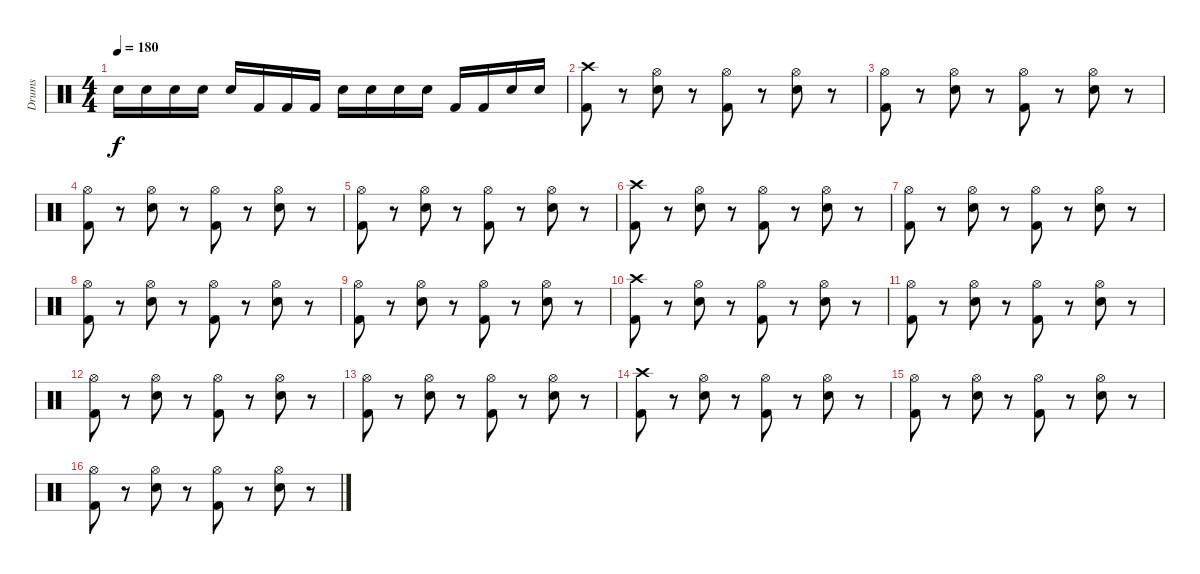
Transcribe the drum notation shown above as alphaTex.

\track ("Drums" "Drums") {instrument percussion}
\staff {score}
\articulation defaults
\ts (4 4)
\tempo 180
\clef neutral
\ks c "Snare (hit) 2".16{dy f} "Snare (hit) 2".16 "Snare (hit) 2".16 "Snare (hit) 2".16 "Snare (hit) 2".16 "Kick (hit) 2".16 "Kick (hit) 2".16 "Kick (hit) 2".16 "Snare (hit) 2".16 "Snare (hit) 2".16 "Snare (hit) 2".16 "Snare (hit) 2".16 "Kick (hit) 2".16 "Kick (hit) 2".16 "Snare (hit) 2".16 "Snare (hit) 2".16
|
("Crash high (hit)" "Kick (hit) 2").8 r.8 ("Hi-Hat (open)" "Snare (hit) 2").8 r.8 ("Hi-Hat (open)" "Kick (hit) 2").8 r.8 ("Hi-Hat (open)" "Snare (hit) 2").8 r.8 |
("Hi-Hat (open)" "Kick (hit) 2").8 r.8 ("Hi-Hat (open)" "Snare (hit) 2").8 r.8 ("Hi-Hat (open)" "Kick (hit) 2").8 r.8 ("Hi-Hat (open)" "Snare (hit) 2").8 r.8 |
("Hi-Hat (open)" "Kick (hit) 2").8 r.8 ("Hi-Hat (open)" "Snare (hit) 2").8 r.8 ("Hi-Hat (open)" "Kick (hit) 2").8 r.8 ("Hi-Hat (open)" "Snare (hit) 2").8 r.8 |
("Hi-Hat (open)" "Kick (hit) 2").8 r.8 ("Hi-Hat (open)" "Snare (hit) 2").8 r.8 ("Hi-Hat (open)" "Kick (hit) 2").8 r.8 ("Hi-Hat (open)" "Snare (hit) 2").8 r.8 |
("Crash high (hit)" "Kick (hit) 2").8 r.8 ("Hi-Hat (open)" "Snare (hit) 2").8 r.8 ("Hi-Hat (open)" "Kick (hit) 2").8 r.8 ("Hi-Hat (open)" "Snare (hit) 2").8 r.8 |
("Hi-Hat (open)" "Kick (hit) 2").8 r.8 ("Hi-Hat (open)" "Snare (hit) 2").8 r.8 ("Hi-Hat (open)" "Kick (hit) 2").8 r.8 ("Hi-Hat (open)" "Snare (hit) 2").8 r.8 |
("Hi-Hat (open)" "Kick (hit) 2").8 r.8 ("Hi-Hat (open)" "Snare (hit) 2").8 r.8 ("Hi-Hat (open)" "Kick (hit) 2").8 r.8 ("Hi-Hat (open)" "Snare (hit) 2").8 r.8 |
("Hi-Hat (open)" "Kick (hit) 2").8 r.8 ("Hi-Hat (open)" "Snare (hit) 2").8 r.8 ("Hi-Hat (open)" "Kick (hit) 2").8 r.8 ("Hi-Hat (open)" "Snare (hit) 2").8 r.8 |
("Crash high (hit)" "Kick (hit) 2").8 r.8 ("Hi-Hat (open)" "Snare (hit) 2").8 r.8 ("Hi-Hat (open)" "Kick (hit) 2").8 r.8 ("Hi-Hat (open)" "Snare (hit) 2").8 r.8 |
("Hi-Hat (open)" "Kick (hit) 2").8 r.8 ("Hi-Hat (open)" "Snare (hit) 2").8 r.8 ("Hi-Hat (open)" "Kick (hit) 2").8 r.8 ("Hi-Hat (open)" "Snare (hit) 2").8 r.8 |
("Hi-Hat (open)" "Kick (hit) 2").8 r.8 ("Hi-Hat (open)" "Snare (hit) 2").8 r.8 ("Hi-Hat (open)" "Kick (hit) 2").8 r.8 ("Hi-Hat (open)" "Snare (hit) 2").8 r.8 |
("Hi-Hat (open)" "Kick (hit) 2").8 r.8 ("Hi-Hat (open)" "Snare (hit) 2").8 r.8 ("Hi-Hat (open)" "Kick (hit) 2").8 r.8 ("Hi-Hat (open)" "Snare (hit) 2").8 r.8 |
("Crash high (hit)" "Kick (hit) 2").8 r.8 ("Hi-Hat (open)" "Snare (hit) 2").8 r.8 ("Hi-Hat (open)" "Kick (hit) 2").8 r.8 ("Hi-Hat (open)" "Snare (hit) 2").8 r.8 |
("Hi-Hat (open)" "Kick (hit) 2").8 r.8 ("Hi-Hat (open)" "Snare (hit) 2").8 r.8 ("Hi-Hat (open)" "Kick (hit) 2").8 r.8 ("Hi-Hat (open)" "Snare (hit) 2").8 r.8 |
("Hi-Hat (open)" "Kick (hit) 2").8 r.8 ("Hi-Hat (open)" "Snare (hit) 2").8 r.8 ("Hi-Hat (open)" "Kick (hit) 2").8 r.8 ("Hi-Hat (open)" "Snare (hit) 2").8 r.8
